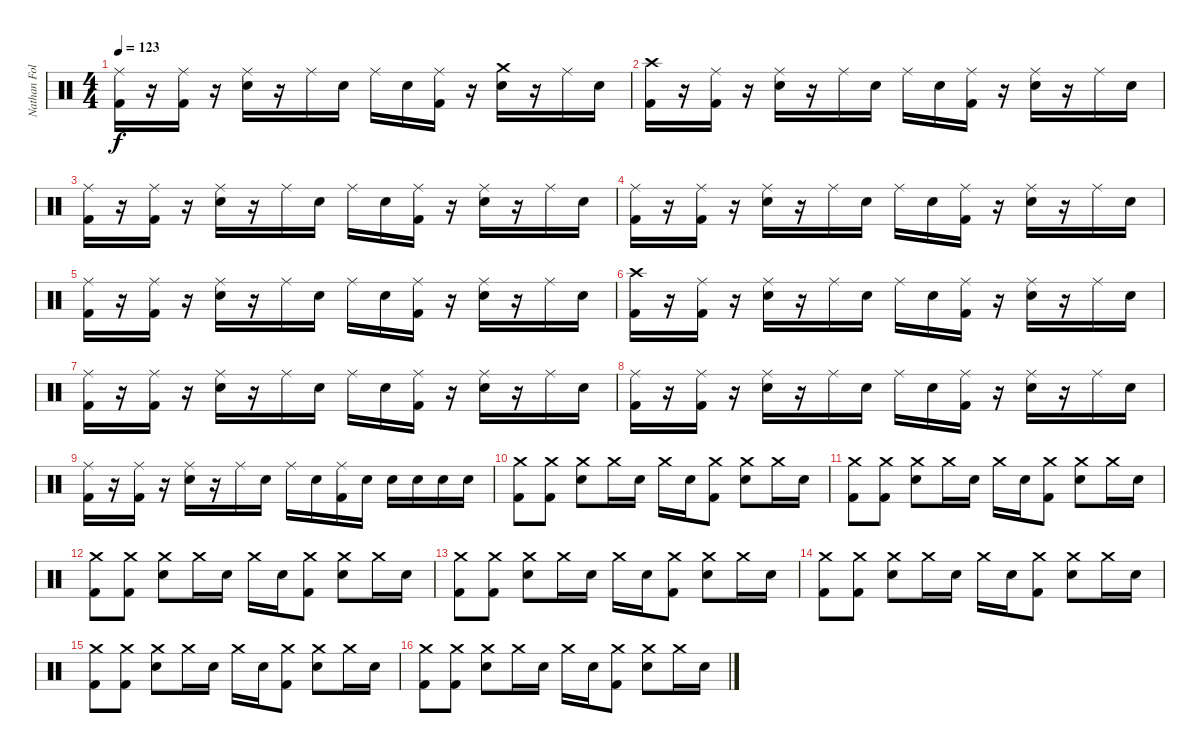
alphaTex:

\track ("Nathan Followill" "Nathan Fol") {instrument percussion}
\staff {score}
\articulation defaults
\ts (4 4)
\tempo 123
\clef neutral
\ks c
("Ride (middle)" "Kick (hit) 2").16{dy f} r.16 ("Ride (middle)" "Kick (hit) 2").16 r.16 ("Ride (middle)" "Electric Snare (hit)").16 r.16 "Ride (middle)".16 "Electric Snare (hit)".16 "Ride (middle)".16 "Electric Snare (hit)".16 ("Ride (middle)" "Kick (hit) 2").16 r.16 ("Crash medium (hit)" "Electric Snare (hit)").16 r.16 "Ride (middle)".16 "Electric Snare (hit)".16 |
("Crash high (hit)" "Kick (hit) 2").16 r.16 ("Ride (middle)" "Kick (hit) 2").16 r.16 ("Ride (middle)" "Electric Snare (hit)").16 r.16 "Ride (middle)".16 "Electric Snare (hit)".16 "Ride (middle)".16 "Electric Snare (hit)".16 ("Ride (middle)" "Kick (hit) 2").16 r.16 ("Ride (middle)" "Electric Snare (hit)").16 r.16 "Ride (middle)".16 "Electric Snare (hit)".16 |
("Ride (middle)" "Kick (hit) 2").16 r.16 ("Ride (middle)" "Kick (hit) 2").16 r.16 ("Ride (middle)" "Electric Snare (hit)").16 r.16 "Ride (middle)".16 "Electric Snare (hit)".16 "Ride (middle)".16 "Electric Snare (hit)".16 ("Ride (middle)" "Kick (hit) 2").16 r.16 ("Ride (middle)" "Electric Snare (hit)").16 r.16 "Ride (middle)".16 "Electric Snare (hit)".16 |
("Ride (middle)" "Kick (hit) 2").16 r.16 ("Ride (middle)" "Kick (hit) 2").16 r.16 ("Ride (middle)" "Electric Snare (hit)").16 r.16 "Ride (middle)".16 "Electric Snare (hit)".16 "Ride (middle)".16 "Electric Snare (hit)".16 ("Ride (middle)" "Kick (hit) 2").16 r.16 ("Ride (middle)" "Electric Snare (hit)").16 r.16 "Ride (middle)".16 "Electric Snare (hit)".16 |
("Ride (middle)" "Kick (hit) 2").16 r.16 ("Ride (middle)" "Kick (hit) 2").16 r.16 ("Ride (middle)" "Electric Snare (hit)").16 r.16 "Ride (middle)".16 "Electric Snare (hit)".16 "Ride (middle)".16 "Electric Snare (hit)".16 ("Ride (middle)" "Kick (hit) 2").16 r.16 ("Ride (middle)" "Electric Snare (hit)").16 r.16 "Ride (middle)".16 "Electric Snare (hit)".16 |
("Crash high (hit)" "Kick (hit) 2").16 r.16 ("Ride (middle)" "Kick (hit) 2").16 r.16 ("Ride (middle)" "Electric Snare (hit)").16 r.16 "Ride (middle)".16 "Electric Snare (hit)".16 "Ride (middle)".16 "Electric Snare (hit)".16 ("Ride (middle)" "Kick (hit) 2").16 r.16 ("Ride (middle)" "Electric Snare (hit)").16 r.16 "Ride (middle)".16 "Electric Snare (hit)".16 |
("Ride (middle)" "Kick (hit) 2").16 r.16 ("Ride (middle)" "Kick (hit) 2").16 r.16 ("Ride (middle)" "Electric Snare (hit)").16 r.16 "Ride (middle)".16 "Electric Snare (hit)".16 "Ride (middle)".16 "Electric Snare (hit)".16 ("Ride (middle)" "Kick (hit) 2").16 r.16 ("Ride (middle)" "Electric Snare (hit)").16 r.16 "Ride (middle)".16 "Electric Snare (hit)".16 |
("Ride (middle)" "Kick (hit) 2").16 r.16 ("Ride (middle)" "Kick (hit) 2").16 r.16 ("Ride (middle)" "Electric Snare (hit)").16 r.16 "Ride (middle)".16 "Electric Snare (hit)".16 "Ride (middle)".16 "Electric Snare (hit)".16 ("Ride (middle)" "Kick (hit) 2").16 r.16 ("Ride (middle)" "Electric Snare (hit)").16 r.16 "Ride (middle)".16 "Electric Snare (hit)".16 |
("Ride (middle)" "Kick (hit) 2").16 r.16 ("Ride (middle)" "Kick (hit) 2").16 r.16 ("Ride (middle)" "Electric Snare (hit)").16 r.16 "Ride (middle)".16 "Electric Snare (hit)".16 "Ride (middle)".16 "Electric Snare (hit)".16 ("Ride (middle)" "Kick (hit) 2").16 "Electric Snare (hit)".16 "Electric Snare (hit)".16 "Electric Snare (hit)".16 "Electric Snare (hit)".16 "Electric Snare (hit)".16 |
("Crash medium (hit)" "Kick (hit) 2").8 ("Crash medium (hit)" "Kick (hit) 2").8 ("Crash medium (hit)" "Electric Snare (hit)").8 "Crash medium (hit)".16 "Electric Snare (hit)".16 "Crash medium (hit)".16 "Electric Snare (hit)".16 ("Crash medium (hit)" "Kick (hit) 2").8 ("Crash medium (hit)" "Electric Snare (hit)").8 "Crash medium (hit)".16 "Electric Snare (hit)".16 |
("Crash medium (hit)" "Kick (hit) 2").8 ("Crash medium (hit)" "Kick (hit) 2").8 ("Crash medium (hit)" "Electric Snare (hit)").8 "Crash medium (hit)".16 "Electric Snare (hit)".16 "Crash medium (hit)".16 "Electric Snare (hit)".16 ("Crash medium (hit)" "Kick (hit) 2").8 ("Crash medium (hit)" "Electric Snare (hit)").8 "Crash medium (hit)".16 "Electric Snare (hit)".16 |
("Crash medium (hit)" "Kick (hit) 2").8 ("Crash medium (hit)" "Kick (hit) 2").8 ("Crash medium (hit)" "Electric Snare (hit)").8 "Crash medium (hit)".16 "Electric Snare (hit)".16 "Crash medium (hit)".16 "Electric Snare (hit)".16 ("Crash medium (hit)" "Kick (hit) 2").8 ("Crash medium (hit)" "Electric Snare (hit)").8 "Crash medium (hit)".16 "Electric Snare (hit)".16 |
("Crash medium (hit)" "Kick (hit) 2").8 ("Crash medium (hit)" "Kick (hit) 2").8 ("Crash medium (hit)" "Electric Snare (hit)").8 "Crash medium (hit)".16 "Electric Snare (hit)".16 "Crash medium (hit)".16 "Electric Snare (hit)".16 ("Crash medium (hit)" "Kick (hit) 2").8 ("Crash medium (hit)" "Electric Snare (hit)").8 "Crash medium (hit)".16 "Electric Snare (hit)".16 |
("Crash medium (hit)" "Kick (hit) 2").8 ("Crash medium (hit)" "Kick (hit) 2").8 ("Crash medium (hit)" "Electric Snare (hit)").8 "Crash medium (hit)".16 "Electric Snare (hit)".16 "Crash medium (hit)".16 "Electric Snare (hit)".16 ("Crash medium (hit)" "Kick (hit) 2").8 ("Crash medium (hit)" "Electric Snare (hit)").8 "Crash medium (hit)".16 "Electric Snare (hit)".16 |
("Crash medium (hit)" "Kick (hit) 2").8 ("Crash medium (hit)" "Kick (hit) 2").8 ("Crash medium (hit)" "Electric Snare (hit)").8 "Crash medium (hit)".16 "Electric Snare (hit)".16 "Crash medium (hit)".16 "Electric Snare (hit)".16 ("Crash medium (hit)" "Kick (hit) 2").8 ("Crash medium (hit)" "Electric Snare (hit)").8 "Crash medium (hit)".16 "Electric Snare (hit)".16 |
("Crash medium (hit)" "Kick (hit) 2").8 ("Crash medium (hit)" "Kick (hit) 2").8 ("Crash medium (hit)" "Electric Snare (hit)").8 "Crash medium (hit)".16 "Electric Snare (hit)".16 "Crash medium (hit)".16 "Electric Snare (hit)".16 ("Crash medium (hit)" "Kick (hit) 2").8 ("Crash medium (hit)" "Electric Snare (hit)").8 "Crash medium (hit)".16 "Electric Snare (hit)".16
